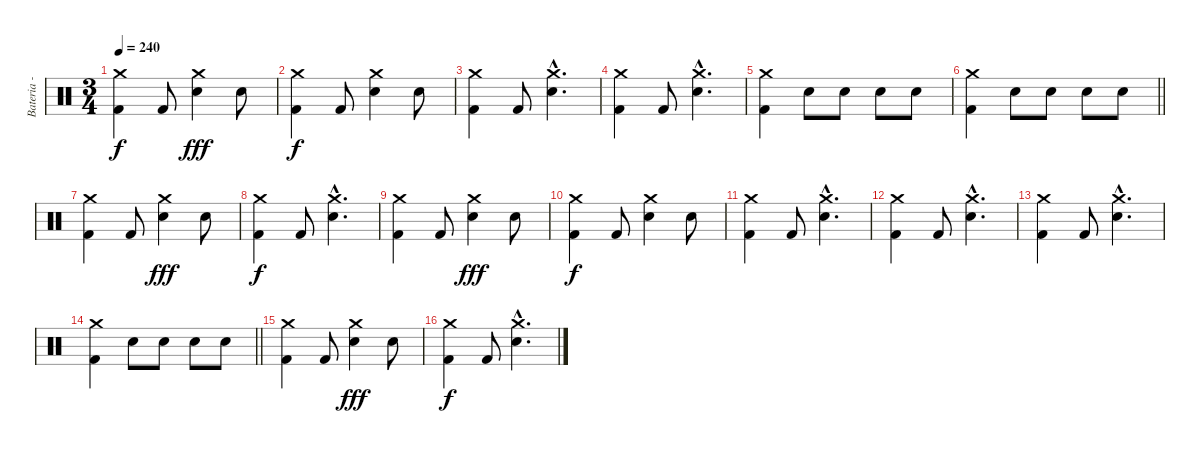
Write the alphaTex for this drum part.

\track ("Bateria - Larzon" "Bateria - ") {instrument percussion}
\staff {score}
\articulation defaults
\ts (3 4)
\tempo 240
\clef neutral
\ks c
("Kick (hit) 2" "Crash medium (hit)").4{dy f} "Kick (hit) 2".8 ("Snare (hit) 2" "Crash medium (hit)").4{dy fff} "Snare (hit) 2".8 |
("Kick (hit) 2" "Crash medium (hit)").4{dy f} "Kick (hit) 2".8 ("Snare (hit) 2" "Crash medium (hit)").4 "Snare (hit) 2".8 |
("Kick (hit) 2" "Crash medium (hit)").4 "Kick (hit) 2".8 ("Snare (hit) 2"{hac} "Crash medium (hit)"{hac}).4{d} |
("Kick (hit) 2" "Crash medium (hit)").4 "Kick (hit) 2".8 ("Snare (hit) 2"{hac} "Crash medium (hit)"{hac}).4{d} |
("Kick (hit) 2" "Crash medium (hit)").4 "Snare (hit) 2".8 "Snare (hit) 2".8 "Snare (hit) 2".8 "Snare (hit) 2".8 |
\barLineRight lightlight
("Kick (hit) 2" "Crash medium (hit)").4 "Snare (hit) 2".8 "Snare (hit) 2".8 "Snare (hit) 2".8 "Snare (hit) 2".8 |
("Kick (hit) 2" "Crash medium (hit)").4 "Kick (hit) 2".8 ("Snare (hit) 2" "Crash medium (hit)").4{dy fff} "Snare (hit) 2".8 |
("Kick (hit) 2" "Crash medium (hit)").4{dy f} "Kick (hit) 2".8 ("Snare (hit) 2"{hac} "Crash medium (hit)"{hac}).4{d} |
("Kick (hit) 2" "Crash medium (hit)").4 "Kick (hit) 2".8 ("Snare (hit) 2" "Crash medium (hit)").4{dy fff} "Snare (hit) 2".8 |
("Kick (hit) 2" "Crash medium (hit)").4{dy f} "Kick (hit) 2".8 ("Snare (hit) 2" "Crash medium (hit)").4 "Snare (hit) 2".8 |
("Kick (hit) 2" "Crash medium (hit)").4 "Kick (hit) 2".8 ("Snare (hit) 2"{hac} "Crash medium (hit)"{hac}).4{d} |
("Kick (hit) 2" "Crash medium (hit)").4 "Kick (hit) 2".8 ("Snare (hit) 2"{hac} "Crash medium (hit)"{hac}).4{d} |
("Kick (hit) 2" "Crash medium (hit)").4 "Kick (hit) 2".8 ("Snare (hit) 2"{hac} "Crash medium (hit)"{hac}).4{d} |
\barLineRight lightlight
("Kick (hit) 2" "Crash medium (hit)").4 "Snare (hit) 2".8 "Snare (hit) 2".8 "Snare (hit) 2".8 "Snare (hit) 2".8 |
("Kick (hit) 2" "Crash medium (hit)").4 "Kick (hit) 2".8 ("Snare (hit) 2" "Crash medium (hit)").4{dy fff} "Snare (hit) 2".8 |
("Kick (hit) 2" "Crash medium (hit)").4{dy f} "Kick (hit) 2".8 ("Snare (hit) 2"{hac} "Crash medium (hit)"{hac}).4{d}
